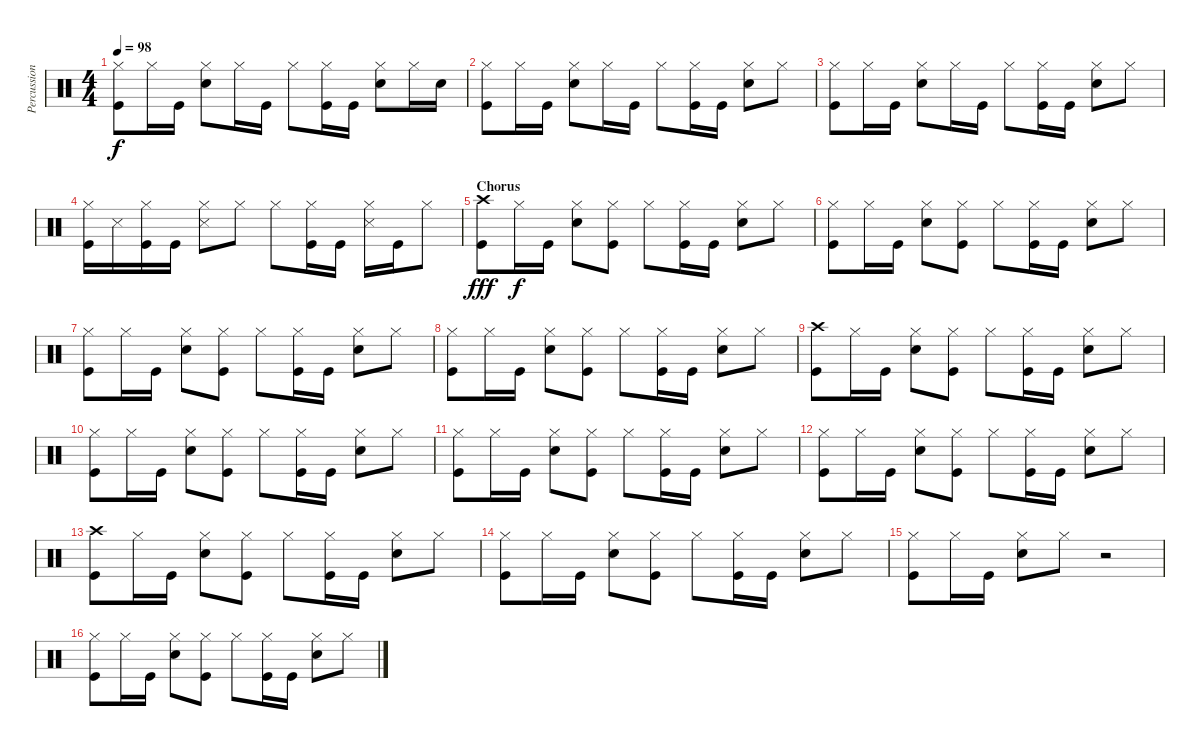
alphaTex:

\track ("Percussion" "Percussion") {instrument percussion}
\staff {score}
\articulation defaults
\ts (4 4)
\tempo 98
\clef neutral
\ks c
("Hi-Hat (closed)" "Kick (hit)").8{dy f volume 14} "Hi-Hat (closed)".16 "Kick (hit)".16 ("Hi-Hat (closed)" "Electric Snare (hit)").8 "Hi-Hat (closed)".16 "Kick (hit)".16 "Hi-Hat (closed)".8 ("Hi-Hat (closed)" "Kick (hit)").16 "Kick (hit)".16 ("Hi-Hat (closed)" "Electric Snare (hit)").8 "Hi-Hat (closed)".16 "Electric Snare (hit)".16 |
("Hi-Hat (closed)" "Kick (hit)").8{volume 14} "Hi-Hat (closed)".16 "Kick (hit)".16 ("Hi-Hat (closed)" "Electric Snare (hit)").8 "Hi-Hat (closed)".16 "Kick (hit)".16 "Hi-Hat (closed)".8 ("Hi-Hat (closed)" "Kick (hit)").16 "Kick (hit)".16 ("Hi-Hat (closed)" "Electric Snare (hit)").8 "Hi-Hat (closed)".8 |
("Hi-Hat (closed)" "Kick (hit)").8{volume 14} "Hi-Hat (closed)".16 "Kick (hit)".16 ("Hi-Hat (closed)" "Electric Snare (hit)").8 "Hi-Hat (closed)".16 "Kick (hit)".16 "Hi-Hat (closed)".8 ("Hi-Hat (closed)" "Kick (hit)").16 "Kick (hit)".16 ("Hi-Hat (closed)" "Electric Snare (hit)").8 "Hi-Hat (closed)".8 |
("Hi-Hat (closed)" "Kick (hit)").16{volume 14} "Snare (side stick) 3".16 ("Hi-Hat (closed)" "Kick (hit)").16 "Kick (hit)".16 ("Hi-Hat (closed)" "Snare (side stick) 3").8 "Hi-Hat (closed)".8 "Hi-Hat (closed)".8 ("Hi-Hat (closed)" "Kick (hit)").16 "Kick (hit)".16 ("Hi-Hat (closed)" "Snare (side stick) 3").16 "Kick (hit)".16 "Hi-Hat (closed)".8 |
\section ("" "Chorus")
("Crash high (hit)" "Kick (hit)").8{dy fff volume 14} "Hi-Hat (closed)".16{dy f} "Kick (hit)".16 ("Hi-Hat (closed)" "Electric Snare (hit)").8 ("Hi-Hat (closed)" "Kick (hit)").8 "Hi-Hat (closed)".8 ("Hi-Hat (closed)" "Kick (hit)").16 "Kick (hit)".16 ("Hi-Hat (closed)" "Electric Snare (hit)").8 "Hi-Hat (closed)".8 |
("Hi-Hat (closed)" "Kick (hit)").8{volume 14} "Hi-Hat (closed)".16 "Kick (hit)".16 ("Hi-Hat (closed)" "Electric Snare (hit)").8 ("Hi-Hat (closed)" "Kick (hit)").8 "Hi-Hat (closed)".8 ("Hi-Hat (closed)" "Kick (hit)").16 "Kick (hit)".16 ("Hi-Hat (closed)" "Electric Snare (hit)").8 "Hi-Hat (closed)".8 |
("Hi-Hat (closed)" "Kick (hit)").8{volume 14} "Hi-Hat (closed)".16 "Kick (hit)".16 ("Hi-Hat (closed)" "Electric Snare (hit)").8 ("Hi-Hat (closed)" "Kick (hit)").8 "Hi-Hat (closed)".8 ("Hi-Hat (closed)" "Kick (hit)").16 "Kick (hit)".16 ("Hi-Hat (closed)" "Electric Snare (hit)").8 "Hi-Hat (closed)".8 |
("Hi-Hat (closed)" "Kick (hit)").8{volume 14} "Hi-Hat (closed)".16 "Kick (hit)".16 ("Hi-Hat (closed)" "Electric Snare (hit)").8 ("Hi-Hat (closed)" "Kick (hit)").8 "Hi-Hat (closed)".8 ("Hi-Hat (closed)" "Kick (hit)").16 "Kick (hit)".16 ("Hi-Hat (closed)" "Electric Snare (hit)").8 "Hi-Hat (closed)".8 |
("Crash high (hit)" "Kick (hit)").8{volume 14} "Hi-Hat (closed)".16 "Kick (hit)".16 ("Hi-Hat (closed)" "Electric Snare (hit)").8 ("Hi-Hat (closed)" "Kick (hit)").8 "Hi-Hat (closed)".8 ("Hi-Hat (closed)" "Kick (hit)").16 "Kick (hit)".16 ("Hi-Hat (closed)" "Electric Snare (hit)").8 "Hi-Hat (closed)".8 |
("Hi-Hat (closed)" "Kick (hit)").8{volume 14} "Hi-Hat (closed)".16 "Kick (hit)".16 ("Hi-Hat (closed)" "Electric Snare (hit)").8 ("Hi-Hat (closed)" "Kick (hit)").8 "Hi-Hat (closed)".8 ("Hi-Hat (closed)" "Kick (hit)").16 "Kick (hit)".16 ("Hi-Hat (closed)" "Electric Snare (hit)").8 "Hi-Hat (closed)".8 |
("Hi-Hat (closed)" "Kick (hit)").8{volume 14} "Hi-Hat (closed)".16 "Kick (hit)".16 ("Hi-Hat (closed)" "Electric Snare (hit)").8 ("Hi-Hat (closed)" "Kick (hit)").8 "Hi-Hat (closed)".8 ("Hi-Hat (closed)" "Kick (hit)").16 "Kick (hit)".16 ("Hi-Hat (closed)" "Electric Snare (hit)").8 "Hi-Hat (closed)".8 |
("Hi-Hat (closed)" "Kick (hit)").8{volume 14} "Hi-Hat (closed)".16 "Kick (hit)".16 ("Hi-Hat (closed)" "Electric Snare (hit)").8 ("Hi-Hat (closed)" "Kick (hit)").8 "Hi-Hat (closed)".8 ("Hi-Hat (closed)" "Kick (hit)").16 "Kick (hit)".16 ("Hi-Hat (closed)" "Electric Snare (hit)").8 "Hi-Hat (closed)".8 |
("Crash high (hit)" "Kick (hit)").8{volume 14} "Hi-Hat (closed)".16 "Kick (hit)".16 ("Hi-Hat (closed)" "Electric Snare (hit)").8 ("Hi-Hat (closed)" "Kick (hit)").8 "Hi-Hat (closed)".8 ("Hi-Hat (closed)" "Kick (hit)").16 "Kick (hit)".16 ("Hi-Hat (closed)" "Electric Snare (hit)").8 "Hi-Hat (closed)".8 |
("Hi-Hat (closed)" "Kick (hit)").8{volume 14} "Hi-Hat (closed)".16 "Kick (hit)".16 ("Hi-Hat (closed)" "Electric Snare (hit)").8 ("Hi-Hat (closed)" "Kick (hit)").8 "Hi-Hat (closed)".8 ("Hi-Hat (closed)" "Kick (hit)").16 "Kick (hit)".16 ("Hi-Hat (closed)" "Electric Snare (hit)").8 "Hi-Hat (closed)".8 |
("Hi-Hat (closed)" "Kick (hit)").8{volume 14} "Hi-Hat (closed)".16 "Kick (hit)".16 ("Hi-Hat (closed)" "Electric Snare (hit)").8 "Hi-Hat (closed)".8 r.2 |
("Hi-Hat (closed)" "Kick (hit)").8{volume 14} "Hi-Hat (closed)".16 "Kick (hit)".16 ("Hi-Hat (closed)" "Electric Snare (hit)").8 ("Hi-Hat (closed)" "Kick (hit)").8 "Hi-Hat (closed)".8 ("Hi-Hat (closed)" "Kick (hit)").16 "Kick (hit)".16 ("Hi-Hat (closed)" "Electric Snare (hit)").8 "Hi-Hat (closed)".8
